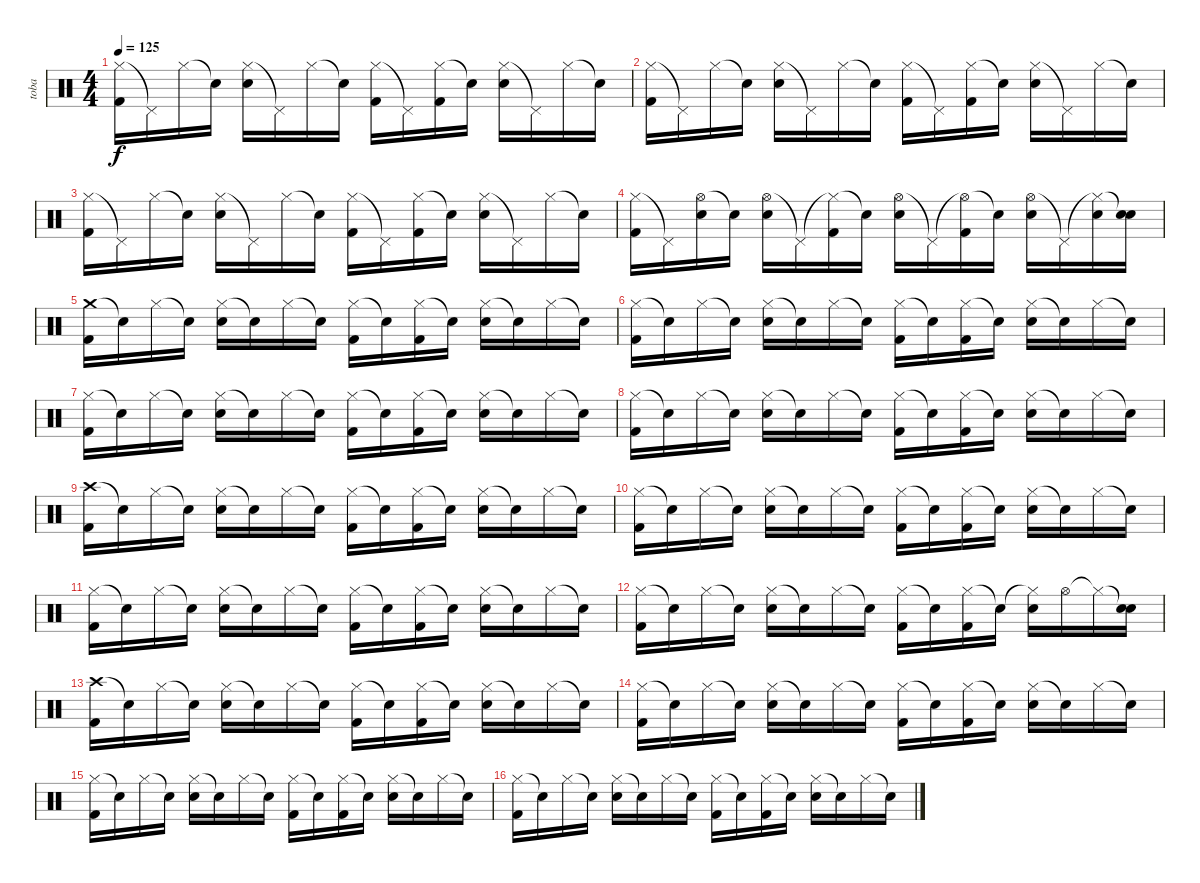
\track ("toba" "toba") {instrument percussion}
\staff {score}
\articulation defaults
\ts (4 4)
\tempo 125
\clef neutral
\ks c
("Hi-Hat (closed)" "Kick (hit) 2").16{dy f} "Pedal Hi-Hat (hit)"{t}.16 "Hi-Hat (closed)".16 "Snare (hit)"{t}.16 ("Hi-Hat (closed)" "Electric Snare (hit)").16 "Pedal Hi-Hat (hit)"{t}.16 "Hi-Hat (closed)".16 "Snare (hit)"{t}.16 ("Hi-Hat (closed)" "Kick (hit) 2").16 "Pedal Hi-Hat (hit)"{t}.16 ("Hi-Hat (closed)" "Kick (hit) 2").16 "Snare (hit)"{t}.16 ("Hi-Hat (closed)" "Electric Snare (hit)").16 "Pedal Hi-Hat (hit)"{t}.16 "Hi-Hat (closed)".16 "Snare (hit)"{t}.16 |
("Hi-Hat (closed)" "Kick (hit) 2").16 "Pedal Hi-Hat (hit)"{t}.16 "Hi-Hat (closed)".16 "Snare (hit)"{t}.16 ("Hi-Hat (closed)" "Electric Snare (hit)").16 "Pedal Hi-Hat (hit)"{t}.16 "Hi-Hat (closed)".16 "Snare (hit)"{t}.16 ("Hi-Hat (closed)" "Kick (hit) 2").16 "Pedal Hi-Hat (hit)"{t}.16 ("Hi-Hat (closed)" "Kick (hit) 2").16 "Snare (hit)"{t}.16 ("Hi-Hat (closed)" "Electric Snare (hit)").16 "Pedal Hi-Hat (hit)"{t}.16 "Hi-Hat (closed)".16 "Snare (hit)"{t}.16 |
("Hi-Hat (closed)" "Kick (hit) 2").16 "Pedal Hi-Hat (hit)"{t}.16 "Hi-Hat (closed)".16 "Snare (hit)"{t}.16 ("Hi-Hat (closed)" "Electric Snare (hit)").16 "Pedal Hi-Hat (hit)"{t}.16 "Hi-Hat (closed)".16 "Snare (hit)"{t}.16 ("Hi-Hat (closed)" "Kick (hit) 2").16 "Pedal Hi-Hat (hit)"{t}.16 ("Hi-Hat (closed)" "Kick (hit) 2").16 "Snare (hit)"{t}.16 ("Hi-Hat (closed)" "Electric Snare (hit)").16 "Pedal Hi-Hat (hit)"{t}.16 "Hi-Hat (closed)".16 "Snare (hit)"{t}.16 |
("Hi-Hat (closed)" "Kick (hit) 2").16 "Pedal Hi-Hat (hit)"{t}.16 ("Hi-Hat (open)" "Electric Snare (hit)").16 "Snare (hit)"{t}.16 ("Hi-Hat (open)" "Electric Snare (hit)").16 "Pedal Hi-Hat (hit)"{t}.16 ("Hi-Hat (closed)"{t} "Kick (hit) 2").16 "Snare (hit)"{t}.16 ("Hi-Hat (open)" "Electric Snare (hit)").16 "Pedal Hi-Hat (hit)"{t}.16 ("Hi-Hat (open)"{t} "Kick (hit) 2").16 "Snare (hit)"{t}.16 ("Hi-Hat (open)" "Electric Snare (hit)").16 "Pedal Hi-Hat (hit)"{t}.16 ("Hi-Hat (closed)"{t} "Electric Snare (hit)").16 ("Snare (hit)"{t} "Electric Snare (hit)").16 |
("Crash medium (hit)" "Kick (hit) 2").16 "Snare (hit)"{t}.16 "Hi-Hat (closed)".16 "Snare (hit)"{t}.16 ("Hi-Hat (closed)" "Electric Snare (hit)").16 "Snare (hit)"{t}.16 "Hi-Hat (closed)".16 "Snare (hit)"{t}.16 ("Hi-Hat (closed)" "Kick (hit) 2").16 "Snare (hit)"{t}.16 ("Hi-Hat (closed)" "Kick (hit) 2").16 "Snare (hit)"{t}.16 ("Hi-Hat (closed)" "Electric Snare (hit)").16 "Snare (hit)"{t}.16 "Hi-Hat (closed)".16 "Snare (hit)"{t}.16 |
("Hi-Hat (closed)" "Kick (hit) 2").16 "Snare (hit)"{t}.16 "Hi-Hat (closed)".16 "Snare (hit)"{t}.16 ("Hi-Hat (closed)" "Electric Snare (hit)").16 "Snare (hit)"{t}.16 "Hi-Hat (closed)".16 "Snare (hit)"{t}.16 ("Hi-Hat (closed)" "Kick (hit) 2").16 "Snare (hit)"{t}.16 ("Hi-Hat (closed)" "Kick (hit) 2").16 "Snare (hit)"{t}.16 ("Hi-Hat (closed)" "Electric Snare (hit)").16 "Snare (hit)"{t}.16 "Hi-Hat (closed)".16 "Snare (hit)"{t}.16 |
("Hi-Hat (closed)" "Kick (hit) 2").16 "Snare (hit)"{t}.16 "Hi-Hat (closed)".16 "Snare (hit)"{t}.16 ("Hi-Hat (closed)" "Electric Snare (hit)").16 "Snare (hit)"{t}.16 "Hi-Hat (closed)".16 "Snare (hit)"{t}.16 ("Hi-Hat (closed)" "Kick (hit) 2").16 "Snare (hit)"{t}.16 ("Hi-Hat (closed)" "Kick (hit) 2").16 "Snare (hit)"{t}.16 ("Hi-Hat (closed)" "Electric Snare (hit)").16 "Snare (hit)"{t}.16 "Hi-Hat (closed)".16 "Snare (hit)"{t}.16 |
("Hi-Hat (closed)" "Kick (hit) 2").16 "Snare (hit)"{t}.16 "Hi-Hat (closed)".16 "Snare (hit)"{t}.16 ("Hi-Hat (closed)" "Electric Snare (hit)").16 "Snare (hit)"{t}.16 "Hi-Hat (closed)".16 "Snare (hit)"{t}.16 ("Hi-Hat (closed)" "Kick (hit) 2").16 "Snare (hit)"{t}.16 ("Hi-Hat (closed)" "Kick (hit) 2").16 "Snare (hit)"{t}.16 ("Hi-Hat (closed)" "Electric Snare (hit)").16 "Snare (hit)"{t}.16 "Hi-Hat (closed)".16 "Snare (hit)"{t}.16 |
("Crash high (hit)" "Kick (hit) 2").16 "Snare (hit)"{t}.16 "Hi-Hat (closed)".16 "Snare (hit)"{t}.16 ("Hi-Hat (closed)" "Electric Snare (hit)").16 "Snare (hit)"{t}.16 "Hi-Hat (closed)".16 "Snare (hit)"{t}.16 ("Hi-Hat (closed)" "Kick (hit) 2").16 "Snare (hit)"{t}.16 ("Hi-Hat (closed)" "Kick (hit) 2").16 "Snare (hit)"{t}.16 ("Hi-Hat (closed)" "Electric Snare (hit)").16 "Snare (hit)"{t}.16 "Hi-Hat (closed)".16 "Snare (hit)"{t}.16 |
("Hi-Hat (closed)" "Kick (hit) 2").16 "Snare (hit)"{t}.16 "Hi-Hat (closed)".16 "Snare (hit)"{t}.16 ("Hi-Hat (closed)" "Electric Snare (hit)").16 "Snare (hit)"{t}.16 "Hi-Hat (closed)".16 "Snare (hit)"{t}.16 ("Hi-Hat (closed)" "Kick (hit) 2").16 "Snare (hit)"{t}.16 ("Hi-Hat (closed)" "Kick (hit) 2").16 "Snare (hit)"{t}.16 ("Hi-Hat (closed)" "Electric Snare (hit)").16 "Snare (hit)"{t}.16 "Hi-Hat (closed)".16 "Snare (hit)"{t}.16 |
("Hi-Hat (closed)" "Kick (hit) 2").16 "Snare (hit)"{t}.16 "Hi-Hat (closed)".16 "Snare (hit)"{t}.16 ("Hi-Hat (closed)" "Electric Snare (hit)").16 "Snare (hit)"{t}.16 "Hi-Hat (closed)".16 "Snare (hit)"{t}.16 ("Hi-Hat (closed)" "Kick (hit) 2").16 "Snare (hit)"{t}.16 ("Hi-Hat (closed)" "Kick (hit) 2").16 "Snare (hit)"{t}.16 ("Hi-Hat (closed)" "Electric Snare (hit)").16 "Snare (hit)"{t}.16 "Hi-Hat (closed)".16 "Snare (hit)"{t}.16 |
("Hi-Hat (closed)" "Kick (hit) 2").16 "Snare (hit)"{t}.16 "Hi-Hat (closed)".16 "Snare (hit)"{t}.16 ("Hi-Hat (closed)" "Electric Snare (hit)").16 "Snare (hit)"{t}.16 "Hi-Hat (closed)".16 "Snare (hit)"{t}.16 ("Hi-Hat (closed)" "Kick (hit) 2").16 "Snare (hit)"{t}.16 ("Hi-Hat (closed)" "Kick (hit) 2").16 "Snare (hit)"{t}.16 ("Hi-Hat (closed)"{t} "Electric Snare (hit)").16 "Hi-Hat (open)".16 "Hi-Hat (closed)"{t}.16 ("Snare (hit)"{t} "Electric Snare (hit)").16 |
("Crash high (hit)" "Kick (hit) 2").16 "Snare (hit)"{t}.16 "Hi-Hat (closed)".16 "Snare (hit)"{t}.16 ("Hi-Hat (closed)" "Electric Snare (hit)").16 "Snare (hit)"{t}.16 "Hi-Hat (closed)".16 "Snare (hit)"{t}.16 ("Hi-Hat (closed)" "Kick (hit) 2").16 "Snare (hit)"{t}.16 ("Hi-Hat (closed)" "Kick (hit) 2").16 "Snare (hit)"{t}.16 ("Hi-Hat (closed)" "Electric Snare (hit)").16 "Snare (hit)"{t}.16 "Hi-Hat (closed)".16 "Snare (hit)"{t}.16 |
("Hi-Hat (closed)" "Kick (hit) 2").16 "Snare (hit)"{t}.16 "Hi-Hat (closed)".16 "Snare (hit)"{t}.16 ("Hi-Hat (closed)" "Electric Snare (hit)").16 "Snare (hit)"{t}.16 "Hi-Hat (closed)".16 "Snare (hit)"{t}.16 ("Hi-Hat (closed)" "Kick (hit) 2").16 "Snare (hit)"{t}.16 ("Hi-Hat (closed)" "Kick (hit) 2").16 "Snare (hit)"{t}.16 ("Hi-Hat (closed)" "Electric Snare (hit)").16 "Snare (hit)"{t}.16 "Hi-Hat (closed)".16 "Snare (hit)"{t}.16 |
("Hi-Hat (closed)" "Kick (hit) 2").16 "Snare (hit)"{t}.16 "Hi-Hat (closed)".16 "Snare (hit)"{t}.16 ("Hi-Hat (closed)" "Electric Snare (hit)").16 "Snare (hit)"{t}.16 "Hi-Hat (closed)".16 "Snare (hit)"{t}.16 ("Hi-Hat (closed)" "Kick (hit) 2").16 "Snare (hit)"{t}.16 ("Hi-Hat (closed)" "Kick (hit) 2").16 "Snare (hit)"{t}.16 ("Hi-Hat (closed)" "Electric Snare (hit)").16 "Snare (hit)"{t}.16 "Hi-Hat (closed)".16 "Snare (hit)"{t}.16 |
("Hi-Hat (closed)" "Kick (hit) 2").16 "Snare (hit)"{t}.16 "Hi-Hat (closed)".16 "Snare (hit)"{t}.16 ("Hi-Hat (closed)" "Electric Snare (hit)").16 "Snare (hit)"{t}.16 "Hi-Hat (closed)".16 "Snare (hit)"{t}.16 ("Hi-Hat (closed)" "Kick (hit) 2").16 "Snare (hit)"{t}.16 ("Hi-Hat (closed)" "Kick (hit) 2").16 "Snare (hit)"{t}.16 ("Hi-Hat (closed)" "Electric Snare (hit)").16 "Snare (hit)"{t}.16 "Hi-Hat (closed)".16 "Snare (hit)"{t}.16
